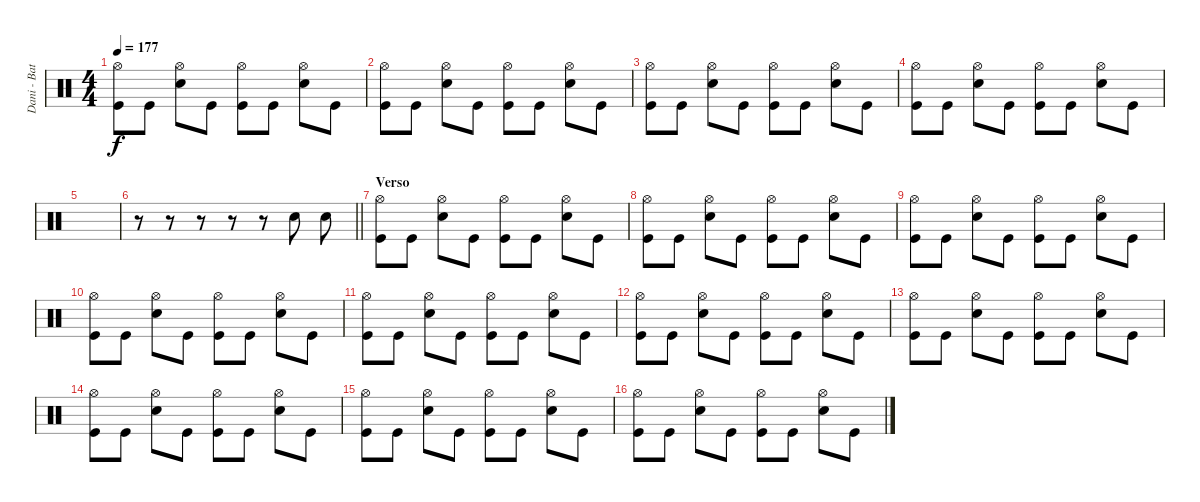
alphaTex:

\track ("Dani - Bateria" "Dani - Bat") {instrument percussion}
\staff {score}
\articulation defaults
\ts (4 4)
\tempo 177
\clef neutral
\ks c
("Hi-Hat (open)" "Kick (hit)").8{dy f} "Kick (hit)".8 ("Hi-Hat (open)" "Electric Snare (hit)").8 "Kick (hit)".8 ("Hi-Hat (open)" "Kick (hit)").8 "Kick (hit)".8 ("Hi-Hat (open)" "Electric Snare (hit)").8 "Kick (hit)".8 |
("Hi-Hat (open)" "Kick (hit)").8 "Kick (hit)".8 ("Hi-Hat (open)" "Electric Snare (hit)").8 "Kick (hit)".8 ("Hi-Hat (open)" "Kick (hit)").8 "Kick (hit)".8 ("Hi-Hat (open)" "Electric Snare (hit)").8 "Kick (hit)".8 |
("Hi-Hat (open)" "Kick (hit)").8 "Kick (hit)".8 ("Hi-Hat (open)" "Electric Snare (hit)").8 "Kick (hit)".8 ("Hi-Hat (open)" "Kick (hit)").8 "Kick (hit)".8 ("Hi-Hat (open)" "Electric Snare (hit)").8 "Kick (hit)".8 |
("Hi-Hat (open)" "Kick (hit)").8 "Kick (hit)".8 ("Hi-Hat (open)" "Electric Snare (hit)").8 "Kick (hit)".8 ("Hi-Hat (open)" "Kick (hit)").8 "Kick (hit)".8 ("Hi-Hat (open)" "Electric Snare (hit)").8 "Kick (hit)".8 |
|
\barLineRight lightlight
r.8 r.8 r.8 r.8 r.8 "Hand Clap (hit)".8 "Hand Clap (hit)".8 |
\section ("" "Verso")
("Hi-Hat (open)" "Kick (hit)").8 "Kick (hit)".8 ("Hi-Hat (open)" "Electric Snare (hit)").8 "Kick (hit)".8 ("Hi-Hat (open)" "Kick (hit)").8 "Kick (hit)".8 ("Hi-Hat (open)" "Electric Snare (hit)").8 "Kick (hit)".8 |
("Hi-Hat (open)" "Kick (hit)").8 "Kick (hit)".8 ("Hi-Hat (open)" "Electric Snare (hit)").8 "Kick (hit)".8 ("Hi-Hat (open)" "Kick (hit)").8 "Kick (hit)".8 ("Hi-Hat (open)" "Electric Snare (hit)").8 "Kick (hit)".8 |
("Hi-Hat (open)" "Kick (hit)").8 "Kick (hit)".8 ("Hi-Hat (open)" "Electric Snare (hit)").8 "Kick (hit)".8 ("Hi-Hat (open)" "Kick (hit)").8 "Kick (hit)".8 ("Hi-Hat (open)" "Electric Snare (hit)").8 "Kick (hit)".8 |
("Hi-Hat (open)" "Kick (hit)").8 "Kick (hit)".8 ("Hi-Hat (open)" "Electric Snare (hit)").8 "Kick (hit)".8 ("Hi-Hat (open)" "Kick (hit)").8 "Kick (hit)".8 ("Hi-Hat (open)" "Electric Snare (hit)").8 "Kick (hit)".8 |
("Hi-Hat (open)" "Kick (hit)").8 "Kick (hit)".8 ("Hi-Hat (open)" "Electric Snare (hit)").8 "Kick (hit)".8 ("Hi-Hat (open)" "Kick (hit)").8 "Kick (hit)".8 ("Hi-Hat (open)" "Electric Snare (hit)").8 "Kick (hit)".8 |
("Hi-Hat (open)" "Kick (hit)").8 "Kick (hit)".8 ("Hi-Hat (open)" "Electric Snare (hit)").8 "Kick (hit)".8 ("Hi-Hat (open)" "Kick (hit)").8 "Kick (hit)".8 ("Hi-Hat (open)" "Electric Snare (hit)").8 "Kick (hit)".8 |
("Hi-Hat (open)" "Kick (hit)").8 "Kick (hit)".8 ("Hi-Hat (open)" "Electric Snare (hit)").8 "Kick (hit)".8 ("Hi-Hat (open)" "Kick (hit)").8 "Kick (hit)".8 ("Hi-Hat (open)" "Electric Snare (hit)").8 "Kick (hit)".8 |
("Hi-Hat (open)" "Kick (hit)").8 "Kick (hit)".8 ("Hi-Hat (open)" "Electric Snare (hit)").8 "Kick (hit)".8 ("Hi-Hat (open)" "Kick (hit)").8 "Kick (hit)".8 ("Hi-Hat (open)" "Electric Snare (hit)").8 "Kick (hit)".8 |
("Hi-Hat (open)" "Kick (hit)").8 "Kick (hit)".8 ("Hi-Hat (open)" "Electric Snare (hit)").8 "Kick (hit)".8 ("Hi-Hat (open)" "Kick (hit)").8 "Kick (hit)".8 ("Hi-Hat (open)" "Electric Snare (hit)").8 "Kick (hit)".8 |
("Hi-Hat (open)" "Kick (hit)").8 "Kick (hit)".8 ("Hi-Hat (open)" "Electric Snare (hit)").8 "Kick (hit)".8 ("Hi-Hat (open)" "Kick (hit)").8 "Kick (hit)".8 ("Hi-Hat (open)" "Electric Snare (hit)").8 "Kick (hit)".8
